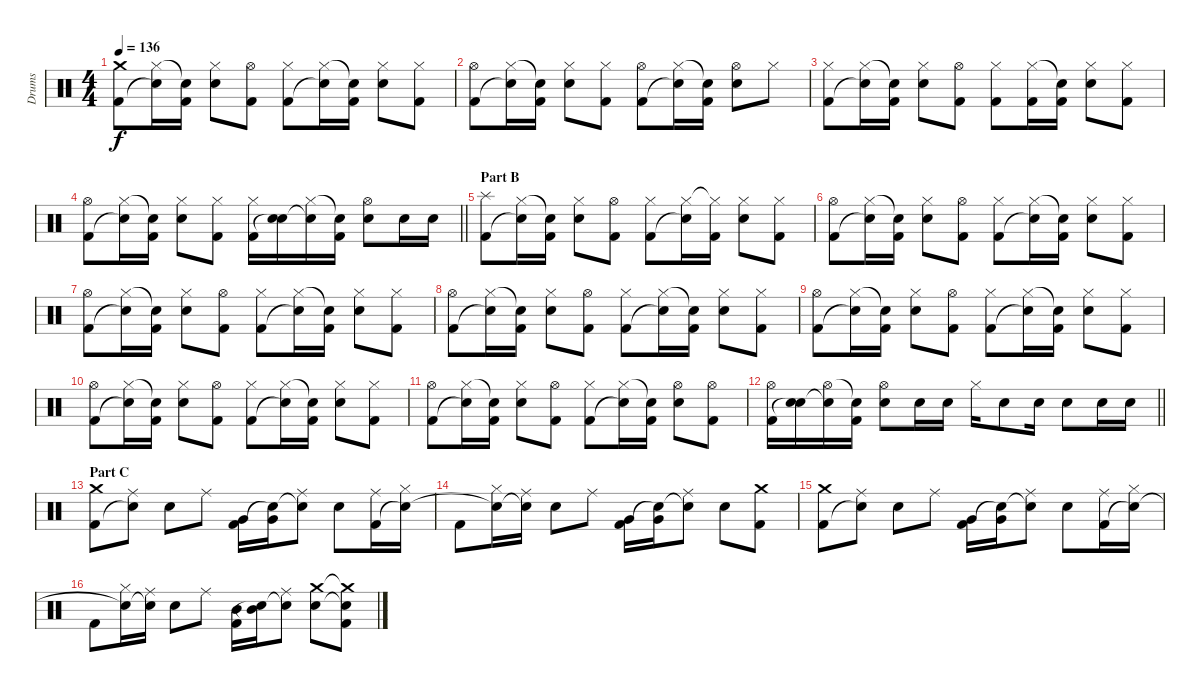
\track ("Drums" "Drums") {instrument percussion}
\staff {score}
\articulation defaults
\ts (4 4)
\tempo 136
\clef neutral
\ks c
("Crash medium (hit)" "Kick (hit) 2").8{dy f} ("Hi-Hat (closed)" "Snare (hit)"{t}).16 ("Snare (hit)"{t} "Kick (hit) 2").16 ("Hi-Hat (closed)" "Electric Snare (hit)").8 ("Hi-Hat (open)" "Kick (hit) 2").8 ("Hi-Hat (closed)" "Kick (hit) 2").8 ("Hi-Hat (closed)" "Snare (hit)"{t}).16 ("Snare (hit)"{t} "Kick (hit) 2").16 ("Hi-Hat (closed)" "Electric Snare (hit)").8 ("Hi-Hat (closed)" "Kick (hit) 2").8 |
("Hi-Hat (open)" "Kick (hit) 2").8 ("Hi-Hat (closed)" "Snare (hit)"{t}).16 ("Snare (hit)"{t} "Kick (hit) 2").16 ("Hi-Hat (closed)" "Electric Snare (hit)").8 ("Hi-Hat (closed)" "Kick (hit) 2").8 ("Hi-Hat (open)" "Kick (hit) 2").8 ("Hi-Hat (closed)" "Snare (hit)"{t}).16 ("Snare (hit)"{t} "Kick (hit) 2").16 ("Hi-Hat (open)" "Electric Snare (hit)").8 "Hi-Hat (closed)".8 |
("Hi-Hat (closed)" "Kick (hit) 2").8 ("Hi-Hat (closed)" "Snare (hit)"{t}).16 ("Snare (hit)"{t} "Kick (hit) 2").16 ("Hi-Hat (closed)" "Electric Snare (hit)").8 ("Hi-Hat (open)" "Kick (hit) 2").8 ("Hi-Hat (closed)" "Kick (hit) 2").8 ("Hi-Hat (closed)" "Kick (hit) 2").16 ("Snare (hit)"{t} "Kick (hit) 2").16 ("Hi-Hat (closed)" "Electric Snare (hit)").8 ("Hi-Hat (closed)" "Kick (hit) 2").8 |
\barLineRight lightlight
("Hi-Hat (open)" "Kick (hit) 2").8 ("Hi-Hat (closed)" "Snare (hit)"{t}).16 ("Snare (hit)"{t} "Kick (hit) 2").16 ("Hi-Hat (closed)" "Electric Snare (hit)").8 ("Hi-Hat (closed)" "Kick (hit) 2").8 ("Hi-Hat (closed)" "Kick (hit) 2").16 ("Electric Snare (hit)" "Snare (hit)"{t}).16 ("Hi-Hat (closed)" "Snare (hit)"{t}).16 ("Snare (hit)"{t} "Kick (hit) 2").16 ("Hi-Hat (open)" "Electric Snare (hit)").8 "Electric Snare (hit)".16 "Electric Snare (hit)".16 |
\section ("" "Part B")
("Splash (hit)" "Kick (hit) 2").8 ("Hi-Hat (closed)" "Snare (hit)"{t}).16 ("Snare (hit)"{t} "Kick (hit) 2").16 ("Hi-Hat (closed)" "Electric Snare (hit)").8 ("Hi-Hat (open)" "Kick (hit) 2").8 ("Hi-Hat (closed)" "Kick (hit) 2").8 ("Hi-Hat (closed)" "Snare (hit)"{t}).16 ("Hi-Hat (closed)"{t} "Kick (hit) 2").16 ("Hi-Hat (closed)" "Electric Snare (hit)").8 ("Hi-Hat (closed)" "Kick (hit) 2").8 |
("Hi-Hat (open)" "Kick (hit) 2").8 ("Hi-Hat (closed)" "Snare (hit)"{t}).16 ("Snare (hit)"{t} "Kick (hit) 2").16 ("Hi-Hat (closed)" "Electric Snare (hit)").8 ("Hi-Hat (open)" "Kick (hit) 2").8 ("Hi-Hat (closed)" "Kick (hit) 2").8 ("Hi-Hat (closed)" "Snare (hit)"{t}).16 ("Snare (hit)"{t} "Kick (hit) 2").16 ("Hi-Hat (closed)" "Electric Snare (hit)").8 ("Hi-Hat (closed)" "Kick (hit) 2").8 |
("Hi-Hat (open)" "Kick (hit) 2").8 ("Hi-Hat (closed)" "Snare (hit)"{t}).16 ("Snare (hit)"{t} "Kick (hit) 2").16 ("Hi-Hat (closed)" "Electric Snare (hit)").8 ("Hi-Hat (open)" "Kick (hit) 2").8 ("Hi-Hat (closed)" "Kick (hit) 2").8 ("Hi-Hat (closed)" "Snare (hit)"{t}).16 ("Snare (hit)"{t} "Kick (hit) 2").16 ("Hi-Hat (closed)" "Electric Snare (hit)").8 ("Hi-Hat (closed)" "Kick (hit) 2").8 |
("Hi-Hat (open)" "Kick (hit) 2").8 ("Hi-Hat (closed)" "Snare (hit)"{t}).16 ("Snare (hit)"{t} "Kick (hit) 2").16 ("Hi-Hat (closed)" "Electric Snare (hit)").8 ("Hi-Hat (open)" "Kick (hit) 2").8 ("Hi-Hat (closed)" "Kick (hit) 2").8 ("Hi-Hat (closed)" "Snare (hit)"{t}).16 ("Snare (hit)"{t} "Kick (hit) 2").16 ("Hi-Hat (closed)" "Electric Snare (hit)").8 ("Hi-Hat (closed)" "Kick (hit) 2").8 |
("Hi-Hat (open)" "Kick (hit) 2").8 ("Hi-Hat (closed)" "Snare (hit)"{t}).16 ("Snare (hit)"{t} "Kick (hit) 2").16 ("Hi-Hat (closed)" "Electric Snare (hit)").8 ("Hi-Hat (open)" "Kick (hit) 2").8 ("Hi-Hat (closed)" "Kick (hit) 2").8 ("Hi-Hat (closed)" "Snare (hit)"{t}).16 ("Snare (hit)"{t} "Kick (hit) 2").16 ("Hi-Hat (closed)" "Electric Snare (hit)").8 ("Hi-Hat (closed)" "Kick (hit) 2").8 |
("Hi-Hat (open)" "Kick (hit) 2").8 ("Hi-Hat (closed)" "Snare (hit)"{t}).16 ("Snare (hit)"{t} "Kick (hit) 2").16 ("Hi-Hat (closed)" "Electric Snare (hit)").8 ("Hi-Hat (open)" "Kick (hit) 2").8 ("Hi-Hat (closed)" "Kick (hit) 2").8 ("Hi-Hat (closed)" "Snare (hit)"{t}).16 ("Snare (hit)"{t} "Kick (hit) 2").16 ("Hi-Hat (closed)" "Electric Snare (hit)").8 ("Hi-Hat (closed)" "Kick (hit) 2").8 |
("Hi-Hat (open)" "Kick (hit) 2").8 ("Hi-Hat (closed)" "Snare (hit)"{t}).16 ("Snare (hit)"{t} "Kick (hit) 2").16 ("Hi-Hat (closed)" "Electric Snare (hit)").8 ("Hi-Hat (open)" "Kick (hit) 2").8 ("Hi-Hat (closed)" "Kick (hit) 2").8 ("Hi-Hat (closed)" "Snare (hit)"{t}).16 ("Snare (hit)"{t} "Kick (hit) 2").16 ("Hi-Hat (open)" "Electric Snare (hit)").8 ("Hi-Hat (open)" "Kick (hit) 2").8 |
\barLineRight lightlight
("Hi-Hat (open)" "Kick (hit) 2").16 ("Electric Snare (hit)" "Snare (hit)"{t}).16 ("Hi-Hat (open)" "Snare (hit)"{t}).16 ("Snare (hit)"{t} "Kick (hit) 2").16 ("Hi-Hat (open)" "Electric Snare (hit)").8 "Electric Snare (hit)".16 "Electric Snare (hit)".16 "Hi-Hat (closed)".16 "Electric Snare (hit)".8 "Electric Snare (hit)".16 "Electric Snare (hit)".8 "Electric Snare (hit)".16 "Electric Snare (hit)".16 |
\section ("" "Part C")
("Crash medium (hit)" "Kick (hit) 2").8 ("Ride (middle)" "Snare (hit)"{t}).8 "Electric Snare (hit)".8 "Ride (middle)".8 ("Very Low Tom (hit)" "Kick (hit) 2").16 ("Very Low Tom (hit)" "Snare (hit)"{t}).16 ("Ride (middle)" "Snare (hit)"{t}).8 "Electric Snare (hit)".8 ("Ride (middle)" "Kick (hit) 2").16 ("Hi-Hat (closed)" "Snare (hit)"{t}).16 |
"Kick (hit) 2".8 ("Hi-Hat (closed)" "Snare (hit)"{t}).16 ("Ride (middle)" "Snare (hit)"{t}).16 "Electric Snare (hit)".8 "Ride (middle)".8 ("Very Low Tom (hit)" "Kick (hit) 2").16 ("Very Low Tom (hit)" "Snare (hit)"{t}).16 ("Ride (middle)" "Snare (hit)"{t}).8 "Electric Snare (hit)".8 ("Crash medium (hit)" "Kick (hit) 2").8 |
("Crash medium (hit)" "Kick (hit) 2").8 ("Ride (middle)" "Snare (hit)"{t}).8 "Electric Snare (hit)".8 "Ride (middle)".8 ("Very Low Tom (hit)" "Kick (hit) 2").16 ("Very Low Tom (hit)" "Snare (hit)"{t}).16 ("Ride (middle)" "Snare (hit)"{t}).8 "Electric Snare (hit)".8 ("Ride (middle)" "Kick (hit) 2").16 ("Hi-Hat (closed)" "Snare (hit)"{t}).16 |
"Kick (hit) 2".8 ("Hi-Hat (closed)" "Snare (hit)"{t}).16 ("Ride (middle)" "Snare (hit)"{t}).16 "Electric Snare (hit)".8 "Ride (middle)".8 ("Mid Tom (hit)" "Kick (hit) 2").16 ("Mid Tom (hit)" "Snare (hit)"{t}).16 ("Ride (middle)" "Snare (hit)"{t}).8 ("Crash medium (hit)" "Electric Snare (hit)").8 ("Crash medium (hit)"{t} "Snare (hit)"{t} "Kick (hit) 2").8
